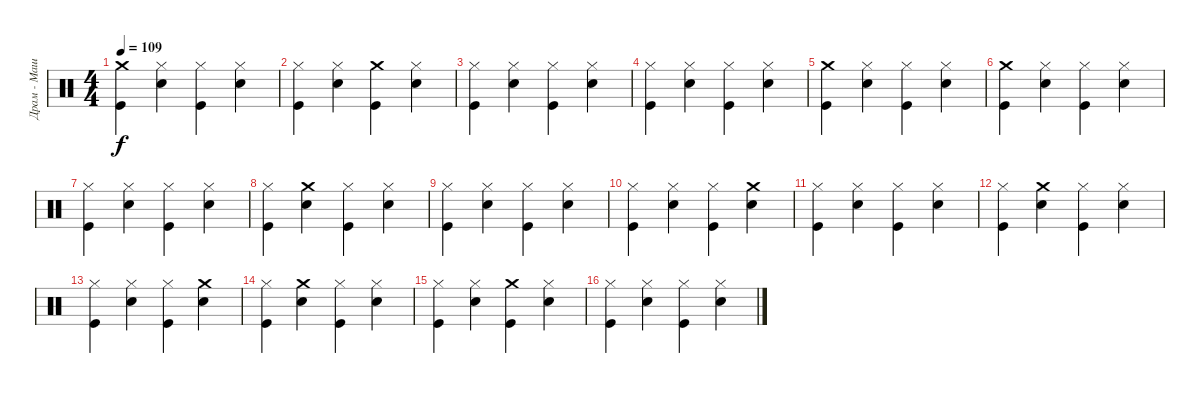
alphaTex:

\track ("Драм - Машина" "Драм - Маш") {instrument percussion}
\staff {score}
\articulation defaults
\ts (4 4)
\tempo 109
\clef neutral
\ks c
("Crash medium (hit)" "Kick (hit)").4{dy f} ("Hi-Hat (closed)" "Snare (hit) 2").4 ("Hi-Hat (closed)" "Kick (hit)").4 ("Hi-Hat (closed)" "Snare (hit) 2").4 |
("Hi-Hat (closed)" "Kick (hit)").4 ("Hi-Hat (closed)" "Snare (hit) 2").4 ("Crash medium (hit)" "Kick (hit)").4 ("Hi-Hat (closed)" "Snare (hit) 2").4 |
("Hi-Hat (closed)" "Kick (hit)").4 ("Hi-Hat (closed)" "Snare (hit) 2").4 ("Hi-Hat (closed)" "Kick (hit)").4 ("Hi-Hat (closed)" "Snare (hit) 2").4 |
("Hi-Hat (closed)" "Kick (hit)").4 ("Hi-Hat (closed)" "Snare (hit) 2").4 ("Hi-Hat (closed)" "Kick (hit)").4 ("Hi-Hat (closed)" "Snare (hit) 2").4 |
("Crash medium (hit)" "Kick (hit)").4 ("Hi-Hat (closed)" "Snare (hit) 2").4 ("Hi-Hat (closed)" "Kick (hit)").4 ("Hi-Hat (closed)" "Snare (hit) 2").4 |
("Crash medium (hit)" "Kick (hit)").4 ("Hi-Hat (closed)" "Snare (hit) 2").4 ("Hi-Hat (closed)" "Kick (hit)").4 ("Hi-Hat (closed)" "Snare (hit) 2").4 |
("Hi-Hat (closed)" "Kick (hit)").4 ("Hi-Hat (closed)" "Snare (hit) 2").4 ("Hi-Hat (closed)" "Kick (hit)").4 ("Hi-Hat (closed)" "Snare (hit) 2").4 |
("Hi-Hat (closed)" "Kick (hit)").4 ("Crash medium (hit)" "Snare (hit) 2").4 ("Hi-Hat (closed)" "Kick (hit)").4 ("Hi-Hat (closed)" "Snare (hit) 2").4 |
("Hi-Hat (closed)" "Kick (hit)").4 ("Hi-Hat (closed)" "Snare (hit) 2").4 ("Hi-Hat (closed)" "Kick (hit)").4 ("Hi-Hat (closed)" "Snare (hit) 2").4 |
("Hi-Hat (closed)" "Kick (hit)").4 ("Hi-Hat (closed)" "Snare (hit) 2").4 ("Hi-Hat (closed)" "Kick (hit)").4 ("Crash medium (hit)" "Snare (hit) 2").4 |
("Hi-Hat (closed)" "Kick (hit)").4 ("Hi-Hat (closed)" "Snare (hit) 2").4 ("Hi-Hat (closed)" "Kick (hit)").4 ("Hi-Hat (closed)" "Snare (hit) 2").4 |
("Hi-Hat (closed)" "Kick (hit)").4 ("Crash medium (hit)" "Snare (hit) 2").4 ("Hi-Hat (closed)" "Kick (hit)").4 ("Hi-Hat (closed)" "Snare (hit) 2").4 |
("Hi-Hat (closed)" "Kick (hit)").4 ("Hi-Hat (closed)" "Snare (hit) 2").4 ("Hi-Hat (closed)" "Kick (hit)").4 ("Crash medium (hit)" "Snare (hit) 2").4 |
("Hi-Hat (closed)" "Kick (hit)").4 ("Crash medium (hit)" "Snare (hit) 2").4 ("Hi-Hat (closed)" "Kick (hit)").4 ("Hi-Hat (closed)" "Snare (hit) 2").4 |
("Hi-Hat (closed)" "Kick (hit)").4 ("Hi-Hat (closed)" "Snare (hit) 2").4 ("Crash medium (hit)" "Kick (hit)").4 ("Hi-Hat (closed)" "Snare (hit) 2").4 |
("Hi-Hat (closed)" "Kick (hit)").4 ("Hi-Hat (closed)" "Snare (hit) 2").4 ("Hi-Hat (closed)" "Kick (hit)").4 ("Hi-Hat (closed)" "Snare (hit) 2").4
